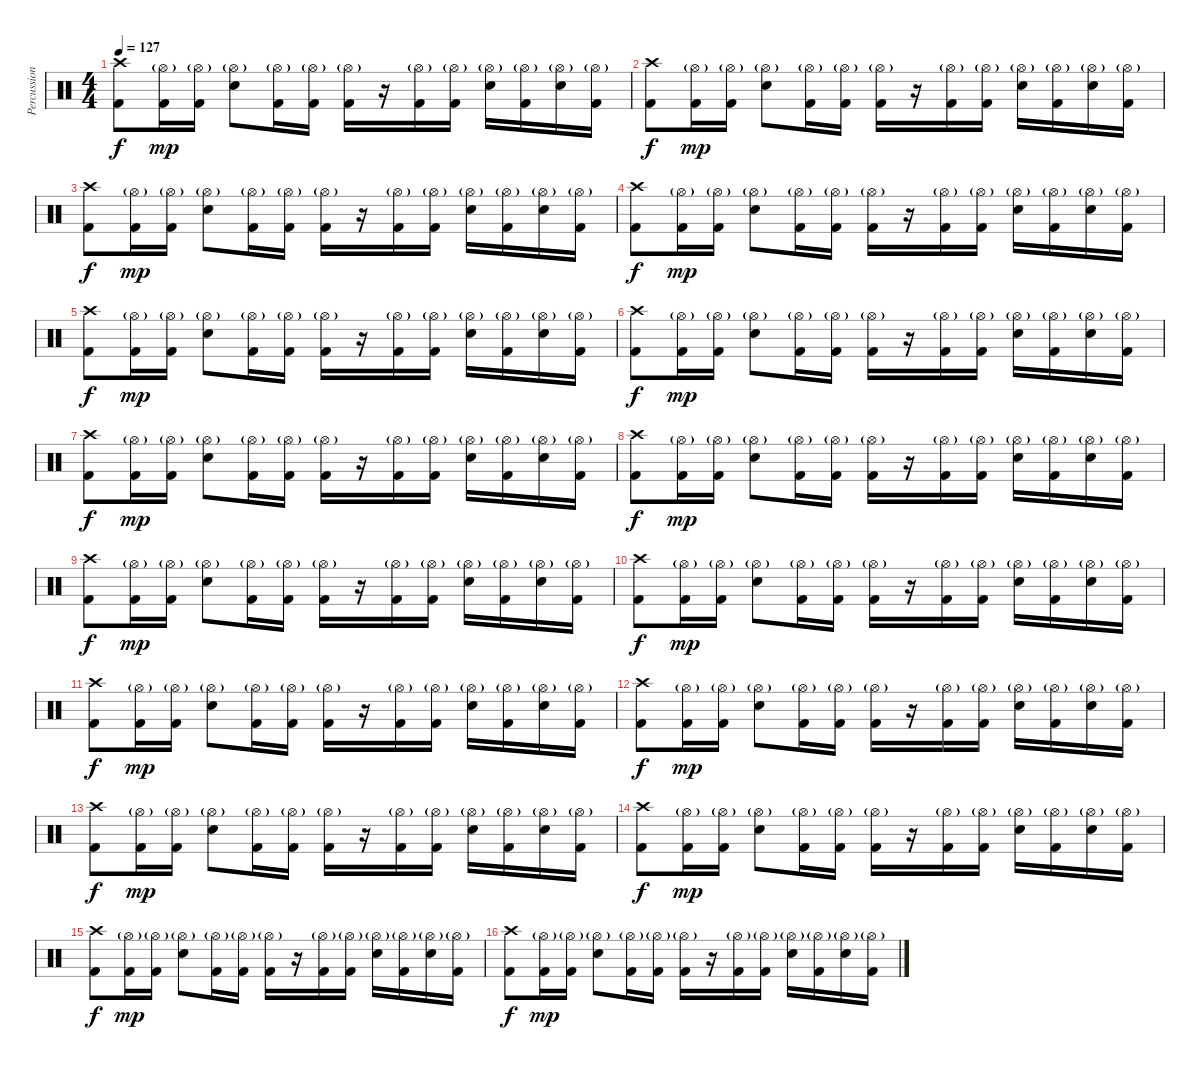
\track ("Percussions" "Percussion") {instrument percussion}
\staff {score}
\articulation defaults
\ts (4 4)
\tempo 127
\clef neutral
\ks c
("Crash high (hit)" "Kick (hit) 2").8{dy f} ("Hi-Hat (open)"{g} "Kick (hit) 2").16{dy mp} ("Hi-Hat (open)"{g} "Kick (hit) 2").16 ("Hi-Hat (open)"{g} "Electric Snare (hit)").8 ("Hi-Hat (open)"{g} "Kick (hit) 2").16 ("Hi-Hat (open)"{g} "Kick (hit) 2").16 ("Hi-Hat (open)"{g} "Kick (hit) 2").16 r.16 ("Hi-Hat (open)"{g} "Kick (hit) 2").16 ("Hi-Hat (open)"{g} "Kick (hit) 2").16 ("Hi-Hat (open)"{g} "Electric Snare (hit)").16 ("Hi-Hat (open)"{g} "Kick (hit) 2").16 ("Hi-Hat (open)"{g} "Electric Snare (hit)").16 ("Hi-Hat (open)"{g} "Kick (hit) 2").16 |
("Crash high (hit)" "Kick (hit) 2").8{dy f} ("Hi-Hat (open)"{g} "Kick (hit) 2").16{dy mp} ("Hi-Hat (open)"{g} "Kick (hit) 2").16 ("Hi-Hat (open)"{g} "Electric Snare (hit)").8 ("Hi-Hat (open)"{g} "Kick (hit) 2").16 ("Hi-Hat (open)"{g} "Kick (hit) 2").16 ("Hi-Hat (open)"{g} "Kick (hit) 2").16 r.16 ("Hi-Hat (open)"{g} "Kick (hit) 2").16 ("Hi-Hat (open)"{g} "Kick (hit) 2").16 ("Hi-Hat (open)"{g} "Electric Snare (hit)").16 ("Hi-Hat (open)"{g} "Kick (hit) 2").16 ("Hi-Hat (open)"{g} "Electric Snare (hit)").16 ("Hi-Hat (open)"{g} "Kick (hit) 2").16 |
("Crash high (hit)" "Kick (hit) 2").8{dy f} ("Hi-Hat (open)"{g} "Kick (hit) 2").16{dy mp} ("Hi-Hat (open)"{g} "Kick (hit) 2").16 ("Hi-Hat (open)"{g} "Electric Snare (hit)").8 ("Hi-Hat (open)"{g} "Kick (hit) 2").16 ("Hi-Hat (open)"{g} "Kick (hit) 2").16 ("Hi-Hat (open)"{g} "Kick (hit) 2").16 r.16 ("Hi-Hat (open)"{g} "Kick (hit) 2").16 ("Hi-Hat (open)"{g} "Kick (hit) 2").16 ("Hi-Hat (open)"{g} "Electric Snare (hit)").16 ("Hi-Hat (open)"{g} "Kick (hit) 2").16 ("Hi-Hat (open)"{g} "Electric Snare (hit)").16 ("Hi-Hat (open)"{g} "Kick (hit) 2").16 |
("Crash high (hit)" "Kick (hit) 2").8{dy f} ("Hi-Hat (open)"{g} "Kick (hit) 2").16{dy mp} ("Hi-Hat (open)"{g} "Kick (hit) 2").16 ("Hi-Hat (open)"{g} "Electric Snare (hit)").8 ("Hi-Hat (open)"{g} "Kick (hit) 2").16 ("Hi-Hat (open)"{g} "Kick (hit) 2").16 ("Hi-Hat (open)"{g} "Kick (hit) 2").16 r.16 ("Hi-Hat (open)"{g} "Kick (hit) 2").16 ("Hi-Hat (open)"{g} "Kick (hit) 2").16 ("Hi-Hat (open)"{g} "Electric Snare (hit)").16 ("Hi-Hat (open)"{g} "Kick (hit) 2").16 ("Hi-Hat (open)"{g} "Electric Snare (hit)").16 ("Hi-Hat (open)"{g} "Kick (hit) 2").16 |
("Crash high (hit)" "Kick (hit) 2").8{dy f} ("Hi-Hat (open)"{g} "Kick (hit) 2").16{dy mp} ("Hi-Hat (open)"{g} "Kick (hit) 2").16 ("Hi-Hat (open)"{g} "Electric Snare (hit)").8 ("Hi-Hat (open)"{g} "Kick (hit) 2").16 ("Hi-Hat (open)"{g} "Kick (hit) 2").16 ("Hi-Hat (open)"{g} "Kick (hit) 2").16 r.16 ("Hi-Hat (open)"{g} "Kick (hit) 2").16 ("Hi-Hat (open)"{g} "Kick (hit) 2").16 ("Hi-Hat (open)"{g} "Electric Snare (hit)").16 ("Hi-Hat (open)"{g} "Kick (hit) 2").16 ("Hi-Hat (open)"{g} "Electric Snare (hit)").16 ("Hi-Hat (open)"{g} "Kick (hit) 2").16 |
("Crash high (hit)" "Kick (hit) 2").8{dy f} ("Hi-Hat (open)"{g} "Kick (hit) 2").16{dy mp} ("Hi-Hat (open)"{g} "Kick (hit) 2").16 ("Hi-Hat (open)"{g} "Electric Snare (hit)").8 ("Hi-Hat (open)"{g} "Kick (hit) 2").16 ("Hi-Hat (open)"{g} "Kick (hit) 2").16 ("Hi-Hat (open)"{g} "Kick (hit) 2").16 r.16 ("Hi-Hat (open)"{g} "Kick (hit) 2").16 ("Hi-Hat (open)"{g} "Kick (hit) 2").16 ("Hi-Hat (open)"{g} "Electric Snare (hit)").16 ("Hi-Hat (open)"{g} "Kick (hit) 2").16 ("Hi-Hat (open)"{g} "Electric Snare (hit)").16 ("Hi-Hat (open)"{g} "Kick (hit) 2").16 |
("Crash high (hit)" "Kick (hit) 2").8{dy f} ("Hi-Hat (open)"{g} "Kick (hit) 2").16{dy mp} ("Hi-Hat (open)"{g} "Kick (hit) 2").16 ("Hi-Hat (open)"{g} "Electric Snare (hit)").8 ("Hi-Hat (open)"{g} "Kick (hit) 2").16 ("Hi-Hat (open)"{g} "Kick (hit) 2").16 ("Hi-Hat (open)"{g} "Kick (hit) 2").16 r.16 ("Hi-Hat (open)"{g} "Kick (hit) 2").16 ("Hi-Hat (open)"{g} "Kick (hit) 2").16 ("Hi-Hat (open)"{g} "Electric Snare (hit)").16 ("Hi-Hat (open)"{g} "Kick (hit) 2").16 ("Hi-Hat (open)"{g} "Electric Snare (hit)").16 ("Hi-Hat (open)"{g} "Kick (hit) 2").16 |
("Crash high (hit)" "Kick (hit) 2").8{dy f} ("Hi-Hat (open)"{g} "Kick (hit) 2").16{dy mp} ("Hi-Hat (open)"{g} "Kick (hit) 2").16 ("Hi-Hat (open)"{g} "Electric Snare (hit)").8 ("Hi-Hat (open)"{g} "Kick (hit) 2").16 ("Hi-Hat (open)"{g} "Kick (hit) 2").16 ("Hi-Hat (open)"{g} "Kick (hit) 2").16 r.16 ("Hi-Hat (open)"{g} "Kick (hit) 2").16 ("Hi-Hat (open)"{g} "Kick (hit) 2").16 ("Hi-Hat (open)"{g} "Electric Snare (hit)").16 ("Hi-Hat (open)"{g} "Kick (hit) 2").16 ("Hi-Hat (open)"{g} "Electric Snare (hit)").16 ("Hi-Hat (open)"{g} "Kick (hit) 2").16 |
("Crash high (hit)" "Kick (hit) 2").8{dy f} ("Hi-Hat (open)"{g} "Kick (hit) 2").16{dy mp} ("Hi-Hat (open)"{g} "Kick (hit) 2").16 ("Hi-Hat (open)"{g} "Electric Snare (hit)").8 ("Hi-Hat (open)"{g} "Kick (hit) 2").16 ("Hi-Hat (open)"{g} "Kick (hit) 2").16 ("Hi-Hat (open)"{g} "Kick (hit) 2").16 r.16 ("Hi-Hat (open)"{g} "Kick (hit) 2").16 ("Hi-Hat (open)"{g} "Kick (hit) 2").16 ("Hi-Hat (open)"{g} "Electric Snare (hit)").16 ("Hi-Hat (open)"{g} "Kick (hit) 2").16 ("Hi-Hat (open)"{g} "Electric Snare (hit)").16 ("Hi-Hat (open)"{g} "Kick (hit) 2").16 |
("Crash high (hit)" "Kick (hit) 2").8{dy f} ("Hi-Hat (open)"{g} "Kick (hit) 2").16{dy mp} ("Hi-Hat (open)"{g} "Kick (hit) 2").16 ("Hi-Hat (open)"{g} "Electric Snare (hit)").8 ("Hi-Hat (open)"{g} "Kick (hit) 2").16 ("Hi-Hat (open)"{g} "Kick (hit) 2").16 ("Hi-Hat (open)"{g} "Kick (hit) 2").16 r.16 ("Hi-Hat (open)"{g} "Kick (hit) 2").16 ("Hi-Hat (open)"{g} "Kick (hit) 2").16 ("Hi-Hat (open)"{g} "Electric Snare (hit)").16 ("Hi-Hat (open)"{g} "Kick (hit) 2").16 ("Hi-Hat (open)"{g} "Electric Snare (hit)").16 ("Hi-Hat (open)"{g} "Kick (hit) 2").16 |
("Crash high (hit)" "Kick (hit) 2").8{dy f} ("Hi-Hat (open)"{g} "Kick (hit) 2").16{dy mp} ("Hi-Hat (open)"{g} "Kick (hit) 2").16 ("Hi-Hat (open)"{g} "Electric Snare (hit)").8 ("Hi-Hat (open)"{g} "Kick (hit) 2").16 ("Hi-Hat (open)"{g} "Kick (hit) 2").16 ("Hi-Hat (open)"{g} "Kick (hit) 2").16 r.16 ("Hi-Hat (open)"{g} "Kick (hit) 2").16 ("Hi-Hat (open)"{g} "Kick (hit) 2").16 ("Hi-Hat (open)"{g} "Electric Snare (hit)").16 ("Hi-Hat (open)"{g} "Kick (hit) 2").16 ("Hi-Hat (open)"{g} "Electric Snare (hit)").16 ("Hi-Hat (open)"{g} "Kick (hit) 2").16 |
("Crash high (hit)" "Kick (hit) 2").8{dy f} ("Hi-Hat (open)"{g} "Kick (hit) 2").16{dy mp} ("Hi-Hat (open)"{g} "Kick (hit) 2").16 ("Hi-Hat (open)"{g} "Electric Snare (hit)").8 ("Hi-Hat (open)"{g} "Kick (hit) 2").16 ("Hi-Hat (open)"{g} "Kick (hit) 2").16 ("Hi-Hat (open)"{g} "Kick (hit) 2").16 r.16 ("Hi-Hat (open)"{g} "Kick (hit) 2").16 ("Hi-Hat (open)"{g} "Kick (hit) 2").16 ("Hi-Hat (open)"{g} "Electric Snare (hit)").16 ("Hi-Hat (open)"{g} "Kick (hit) 2").16 ("Hi-Hat (open)"{g} "Electric Snare (hit)").16 ("Hi-Hat (open)"{g} "Kick (hit) 2").16 |
("Crash high (hit)" "Kick (hit) 2").8{dy f} ("Hi-Hat (open)"{g} "Kick (hit) 2").16{dy mp} ("Hi-Hat (open)"{g} "Kick (hit) 2").16 ("Hi-Hat (open)"{g} "Electric Snare (hit)").8 ("Hi-Hat (open)"{g} "Kick (hit) 2").16 ("Hi-Hat (open)"{g} "Kick (hit) 2").16 ("Hi-Hat (open)"{g} "Kick (hit) 2").16 r.16 ("Hi-Hat (open)"{g} "Kick (hit) 2").16 ("Hi-Hat (open)"{g} "Kick (hit) 2").16 ("Hi-Hat (open)"{g} "Electric Snare (hit)").16 ("Hi-Hat (open)"{g} "Kick (hit) 2").16 ("Hi-Hat (open)"{g} "Electric Snare (hit)").16 ("Hi-Hat (open)"{g} "Kick (hit) 2").16 |
("Crash high (hit)" "Kick (hit) 2").8{dy f} ("Hi-Hat (open)"{g} "Kick (hit) 2").16{dy mp} ("Hi-Hat (open)"{g} "Kick (hit) 2").16 ("Hi-Hat (open)"{g} "Electric Snare (hit)").8 ("Hi-Hat (open)"{g} "Kick (hit) 2").16 ("Hi-Hat (open)"{g} "Kick (hit) 2").16 ("Hi-Hat (open)"{g} "Kick (hit) 2").16 r.16 ("Hi-Hat (open)"{g} "Kick (hit) 2").16 ("Hi-Hat (open)"{g} "Kick (hit) 2").16 ("Hi-Hat (open)"{g} "Electric Snare (hit)").16 ("Hi-Hat (open)"{g} "Kick (hit) 2").16 ("Hi-Hat (open)"{g} "Electric Snare (hit)").16 ("Hi-Hat (open)"{g} "Kick (hit) 2").16 |
("Crash high (hit)" "Kick (hit) 2").8{dy f} ("Hi-Hat (open)"{g} "Kick (hit) 2").16{dy mp} ("Hi-Hat (open)"{g} "Kick (hit) 2").16 ("Hi-Hat (open)"{g} "Electric Snare (hit)").8 ("Hi-Hat (open)"{g} "Kick (hit) 2").16 ("Hi-Hat (open)"{g} "Kick (hit) 2").16 ("Hi-Hat (open)"{g} "Kick (hit) 2").16 r.16 ("Hi-Hat (open)"{g} "Kick (hit) 2").16 ("Hi-Hat (open)"{g} "Kick (hit) 2").16 ("Hi-Hat (open)"{g} "Electric Snare (hit)").16 ("Hi-Hat (open)"{g} "Kick (hit) 2").16 ("Hi-Hat (open)"{g} "Electric Snare (hit)").16 ("Hi-Hat (open)"{g} "Kick (hit) 2").16 |
("Crash high (hit)" "Kick (hit) 2").8{dy f} ("Hi-Hat (open)"{g} "Kick (hit) 2").16{dy mp} ("Hi-Hat (open)"{g} "Kick (hit) 2").16 ("Hi-Hat (open)"{g} "Electric Snare (hit)").8 ("Hi-Hat (open)"{g} "Kick (hit) 2").16 ("Hi-Hat (open)"{g} "Kick (hit) 2").16 ("Hi-Hat (open)"{g} "Kick (hit) 2").16 r.16 ("Hi-Hat (open)"{g} "Kick (hit) 2").16 ("Hi-Hat (open)"{g} "Kick (hit) 2").16 ("Hi-Hat (open)"{g} "Electric Snare (hit)").16 ("Hi-Hat (open)"{g} "Kick (hit) 2").16 ("Hi-Hat (open)"{g} "Electric Snare (hit)").16 ("Hi-Hat (open)"{g} "Kick (hit) 2").16
